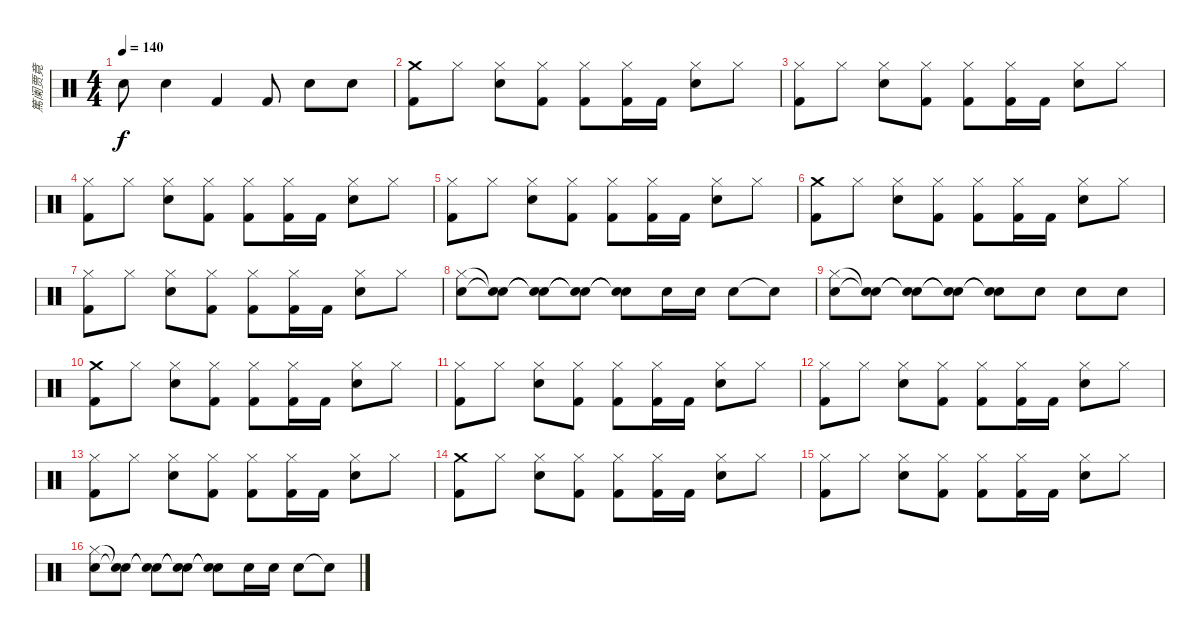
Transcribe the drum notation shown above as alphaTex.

\track ("篤阑贾竟" "篤阑贾竟") {instrument percussion}
\staff {score}
\articulation defaults
\ts (4 4)
\tempo 140
\clef neutral
\ks c "Snare (hit) 2".8{dy f} "Snare (hit) 2".4 "Kick (hit) 2".4 "Kick (hit) 2".8 "Snare (hit) 2".8 "Snare (hit) 2".8
|
("Crash medium (hit)" "Kick (hit) 2").8 "Hi-Hat (closed)".8 ("Hi-Hat (closed)" "Snare (hit) 2").8 ("Hi-Hat (closed)" "Kick (hit) 2").8 ("Hi-Hat (closed)" "Kick (hit) 2").8 ("Hi-Hat (closed)" "Kick (hit) 2").16 "Kick (hit) 2".16 ("Hi-Hat (closed)" "Snare (hit) 2").8 "Hi-Hat (closed)".8 |
("Hi-Hat (closed)" "Kick (hit) 2").8 "Hi-Hat (closed)".8 ("Hi-Hat (closed)" "Snare (hit) 2").8 ("Hi-Hat (closed)" "Kick (hit) 2").8 ("Hi-Hat (closed)" "Kick (hit) 2").8 ("Hi-Hat (closed)" "Kick (hit) 2").16 "Kick (hit) 2".16 ("Hi-Hat (closed)" "Snare (hit) 2").8 "Hi-Hat (closed)".8 |
("Hi-Hat (closed)" "Kick (hit) 2").8 "Hi-Hat (closed)".8 ("Hi-Hat (closed)" "Snare (hit) 2").8 ("Hi-Hat (closed)" "Kick (hit) 2").8 ("Hi-Hat (closed)" "Kick (hit) 2").8 ("Hi-Hat (closed)" "Kick (hit) 2").16 "Kick (hit) 2".16 ("Hi-Hat (closed)" "Snare (hit) 2").8 "Hi-Hat (closed)".8 |
("Hi-Hat (closed)" "Kick (hit) 2").8 "Hi-Hat (closed)".8 ("Hi-Hat (closed)" "Snare (hit) 2").8 ("Hi-Hat (closed)" "Kick (hit) 2").8 ("Hi-Hat (closed)" "Kick (hit) 2").8 ("Hi-Hat (closed)" "Kick (hit) 2").16 "Kick (hit) 2".16 ("Hi-Hat (closed)" "Snare (hit) 2").8 "Hi-Hat (closed)".8 |
("Crash medium (hit)" "Kick (hit) 2").8 "Hi-Hat (closed)".8 ("Hi-Hat (closed)" "Snare (hit) 2").8 ("Hi-Hat (closed)" "Kick (hit) 2").8 ("Hi-Hat (closed)" "Kick (hit) 2").8 ("Hi-Hat (closed)" "Kick (hit) 2").16 "Kick (hit) 2".16 ("Hi-Hat (closed)" "Snare (hit) 2").8 "Hi-Hat (closed)".8 |
("Hi-Hat (closed)" "Kick (hit) 2").8 "Hi-Hat (closed)".8 ("Hi-Hat (closed)" "Snare (hit) 2").8 ("Hi-Hat (closed)" "Kick (hit) 2").8 ("Hi-Hat (closed)" "Kick (hit) 2").8 ("Hi-Hat (closed)" "Kick (hit) 2").16 "Kick (hit) 2".16 ("Hi-Hat (closed)" "Snare (hit) 2").8 "Hi-Hat (closed)".8 |
("Hi-Hat (closed)" "Snare (hit) 2").8 ("Snare (hit)"{t} "Snare (hit)"{t}).8 ("Snare (hit)"{t} "Snare (hit)"{t}).8 ("Snare (hit)"{t} "Snare (hit)"{t}).8 ("Snare (hit)"{t} "Snare (hit)"{t}).8 "Snare (hit) 2".16 "Snare (hit) 2".16 "Snare (hit) 2".8 "Snare (hit)"{t}.8 |
("Hi-Hat (closed)" "Snare (hit) 2").8 ("Snare (hit)"{t} "Snare (hit)"{t}).8 ("Snare (hit)"{t} "Snare (hit)"{t}).8 ("Snare (hit)"{t} "Snare (hit)"{t}).8 ("Snare (hit)"{t} "Snare (hit)"{t}).8 "Snare (hit) 2".8 "Snare (hit) 2".8 "Snare (hit) 2".8 |
("Crash medium (hit)" "Kick (hit) 2").8 "Hi-Hat (closed)".8 ("Hi-Hat (closed)" "Snare (hit) 2").8 ("Hi-Hat (closed)" "Kick (hit) 2").8 ("Hi-Hat (closed)" "Kick (hit) 2").8 ("Hi-Hat (closed)" "Kick (hit) 2").16 "Kick (hit) 2".16 ("Hi-Hat (closed)" "Snare (hit) 2").8 "Hi-Hat (closed)".8 |
("Hi-Hat (closed)" "Kick (hit) 2").8 "Hi-Hat (closed)".8 ("Hi-Hat (closed)" "Snare (hit) 2").8 ("Hi-Hat (closed)" "Kick (hit) 2").8 ("Hi-Hat (closed)" "Kick (hit) 2").8 ("Hi-Hat (closed)" "Kick (hit) 2").16 "Kick (hit) 2".16 ("Hi-Hat (closed)" "Snare (hit) 2").8 "Hi-Hat (closed)".8 |
("Hi-Hat (closed)" "Kick (hit) 2").8 "Hi-Hat (closed)".8 ("Hi-Hat (closed)" "Snare (hit) 2").8 ("Hi-Hat (closed)" "Kick (hit) 2").8 ("Hi-Hat (closed)" "Kick (hit) 2").8 ("Hi-Hat (closed)" "Kick (hit) 2").16 "Kick (hit) 2".16 ("Hi-Hat (closed)" "Snare (hit) 2").8 "Hi-Hat (closed)".8 |
("Hi-Hat (closed)" "Kick (hit) 2").8 "Hi-Hat (closed)".8 ("Hi-Hat (closed)" "Snare (hit) 2").8 ("Hi-Hat (closed)" "Kick (hit) 2").8 ("Hi-Hat (closed)" "Kick (hit) 2").8 ("Hi-Hat (closed)" "Kick (hit) 2").16 "Kick (hit) 2".16 ("Hi-Hat (closed)" "Snare (hit) 2").8 "Hi-Hat (closed)".8 |
("Crash medium (hit)" "Kick (hit) 2").8 "Hi-Hat (closed)".8 ("Hi-Hat (closed)" "Snare (hit) 2").8 ("Hi-Hat (closed)" "Kick (hit) 2").8 ("Hi-Hat (closed)" "Kick (hit) 2").8 ("Hi-Hat (closed)" "Kick (hit) 2").16 "Kick (hit) 2".16 ("Hi-Hat (closed)" "Snare (hit) 2").8 "Hi-Hat (closed)".8 |
("Hi-Hat (closed)" "Kick (hit) 2").8 "Hi-Hat (closed)".8 ("Hi-Hat (closed)" "Snare (hit) 2").8 ("Hi-Hat (closed)" "Kick (hit) 2").8 ("Hi-Hat (closed)" "Kick (hit) 2").8 ("Hi-Hat (closed)" "Kick (hit) 2").16 "Kick (hit) 2".16 ("Hi-Hat (closed)" "Snare (hit) 2").8 "Hi-Hat (closed)".8 |
("Hi-Hat (closed)" "Snare (hit) 2").8 ("Snare (hit)"{t} "Snare (hit)"{t}).8 ("Snare (hit)"{t} "Snare (hit)"{t}).8 ("Snare (hit)"{t} "Snare (hit)"{t}).8 ("Snare (hit)"{t} "Snare (hit)"{t}).8 "Snare (hit) 2".16 "Snare (hit) 2".16 "Snare (hit) 2".8 "Snare (hit)"{t}.8
